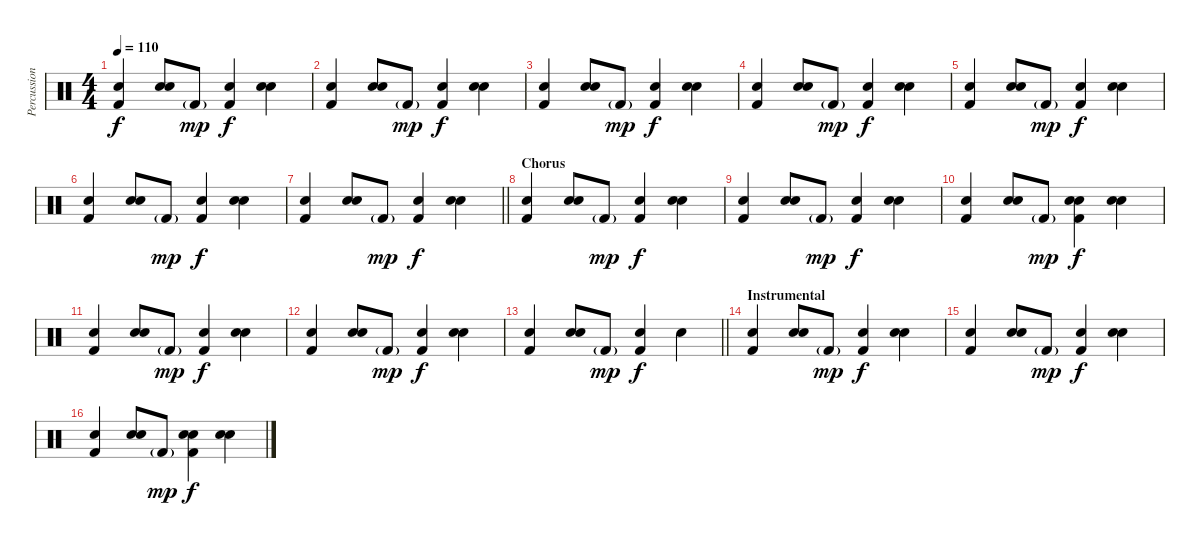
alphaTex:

\track ("Percussion" "Percussion") {instrument percussion}
\staff {score}
\articulation defaults
\ts (4 4)
\tempo 110
\clef neutral
\ks c
("Hand Clap (hit)" "Kick (hit) 2").4{dy f} ("Snare (hit) 2" "Hand Clap (hit)").8 "Kick (hit) 2"{g}.8{dy mp} ("Hand Clap (hit)" "Kick (hit) 2").4{dy f} ("Snare (hit) 2" "Hand Clap (hit)").4 |
("Hand Clap (hit)" "Kick (hit) 2").4 ("Snare (hit) 2" "Hand Clap (hit)").8 "Kick (hit) 2"{g}.8{dy mp} ("Hand Clap (hit)" "Kick (hit) 2").4{dy f} ("Snare (hit) 2" "Hand Clap (hit)").4 |
("Hand Clap (hit)" "Kick (hit) 2").4 ("Snare (hit) 2" "Hand Clap (hit)").8 "Kick (hit) 2"{g}.8{dy mp} ("Hand Clap (hit)" "Kick (hit) 2").4{dy f} ("Snare (hit) 2" "Hand Clap (hit)").4 |
("Hand Clap (hit)" "Kick (hit) 2").4 ("Snare (hit) 2" "Hand Clap (hit)").8 "Kick (hit) 2"{g}.8{dy mp} ("Hand Clap (hit)" "Kick (hit) 2").4{dy f} ("Snare (hit) 2" "Hand Clap (hit)").4 |
("Hand Clap (hit)" "Kick (hit) 2").4 ("Snare (hit) 2" "Hand Clap (hit)").8 "Kick (hit) 2"{g}.8{dy mp} ("Hand Clap (hit)" "Kick (hit) 2").4{dy f} ("Snare (hit) 2" "Hand Clap (hit)").4 |
("Hand Clap (hit)" "Kick (hit) 2").4 ("Snare (hit) 2" "Hand Clap (hit)").8 "Kick (hit) 2"{g}.8{dy mp} ("Hand Clap (hit)" "Kick (hit) 2").4{dy f} ("Snare (hit) 2" "Hand Clap (hit)").4 |
\barLineRight lightlight
("Hand Clap (hit)" "Kick (hit) 2").4 ("Snare (hit) 2" "Hand Clap (hit)").8 "Kick (hit) 2"{g}.8{dy mp} ("Hand Clap (hit)" "Kick (hit) 2").4{dy f} ("Snare (hit) 2" "Hand Clap (hit)").4 |
\section ("" "Chorus")
("Hand Clap (hit)" "Kick (hit) 2").4 ("Snare (hit) 2" "Hand Clap (hit)").8 "Kick (hit) 2"{g}.8{dy mp} ("Hand Clap (hit)" "Kick (hit) 2").4{dy f} ("Snare (hit) 2" "Hand Clap (hit)").4 |
("Hand Clap (hit)" "Kick (hit) 2").4 ("Snare (hit) 2" "Hand Clap (hit)").8 "Kick (hit) 2"{g}.8{dy mp} ("Hand Clap (hit)" "Kick (hit) 2").4{dy f} ("Snare (hit) 2" "Hand Clap (hit)").4 |
("Hand Clap (hit)" "Kick (hit) 2").4 ("Snare (hit) 2" "Hand Clap (hit)").8 "Kick (hit) 2"{g}.8{dy mp} ("Snare (hit) 2" "Hand Clap (hit)" "Kick (hit) 2").4{dy f} ("Snare (hit) 2" "Hand Clap (hit)").4 |
("Hand Clap (hit)" "Kick (hit) 2").4 ("Snare (hit) 2" "Hand Clap (hit)").8 "Kick (hit) 2"{g}.8{dy mp} ("Hand Clap (hit)" "Kick (hit) 2").4{dy f} ("Snare (hit) 2" "Hand Clap (hit)").4 |
("Hand Clap (hit)" "Kick (hit) 2").4 ("Snare (hit) 2" "Hand Clap (hit)").8 "Kick (hit) 2"{g}.8{dy mp} ("Hand Clap (hit)" "Kick (hit) 2").4{dy f} ("Snare (hit) 2" "Hand Clap (hit)").4 |
\barLineRight lightlight
("Hand Clap (hit)" "Kick (hit) 2").4 ("Snare (hit) 2" "Hand Clap (hit)").8 "Kick (hit) 2"{g}.8{dy mp} ("Hand Clap (hit)" "Kick (hit) 2").4{dy f} "Hand Clap (hit)".4 |
\section ("" "Instrumental")
("Hand Clap (hit)" "Kick (hit) 2").4 ("Snare (hit) 2" "Hand Clap (hit)").8 "Kick (hit) 2"{g}.8{dy mp} ("Hand Clap (hit)" "Kick (hit) 2").4{dy f} ("Snare (hit) 2" "Hand Clap (hit)").4 |
("Hand Clap (hit)" "Kick (hit) 2").4 ("Snare (hit) 2" "Hand Clap (hit)").8 "Kick (hit) 2"{g}.8{dy mp} ("Hand Clap (hit)" "Kick (hit) 2").4{dy f} ("Snare (hit) 2" "Hand Clap (hit)").4 |
("Hand Clap (hit)" "Kick (hit) 2").4 ("Snare (hit) 2" "Hand Clap (hit)").8 "Kick (hit) 2"{g}.8{dy mp} ("Snare (hit) 2" "Hand Clap (hit)" "Kick (hit) 2").4{dy f} ("Snare (hit) 2" "Hand Clap (hit)").4
